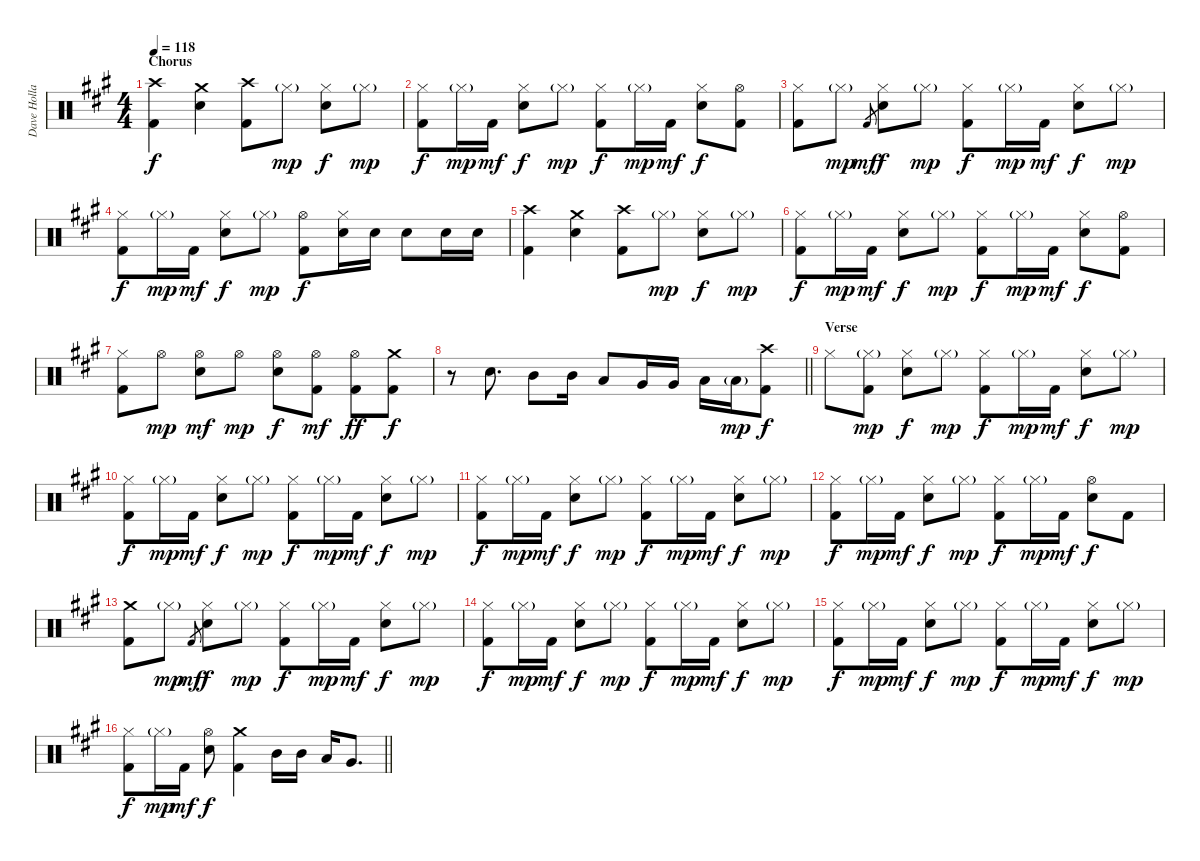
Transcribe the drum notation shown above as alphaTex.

\track ("Dave Holland" "Dave Holla") {instrument percussion}
\staff {score}
\articulation defaults
\ts (4 4)
\section ("" "Chorus")
\tempo 118
\clef neutral
\ks f#minor
("Crash high (hit)" "Kick (hit) 2").4{dy f} ("Crash medium (hit)" "Snare (hit) 2").4 ("Crash high (hit)" "Kick (hit) 2").8 "Hi-Hat (closed)"{g}.8{dy mp} ("Hi-Hat (closed)" "Snare (hit) 2").8{dy f} "Hi-Hat (closed)"{g}.8{dy mp} |
("Hi-Hat (closed)" "Kick (hit) 2").8{dy f} "Hi-Hat (closed)"{g}.16{dy mp} "Kick (hit) 2".16{dy mf} ("Hi-Hat (closed)" "Snare (hit) 2").8{dy f} "Hi-Hat (closed)"{g}.8{dy mp} ("Hi-Hat (closed)" "Kick (hit) 2").8{dy f} "Hi-Hat (closed)"{g}.16{dy mp} "Kick (hit) 2".16{dy mf} ("Hi-Hat (closed)" "Snare (hit) 2").8{dy f} ("Hi-Hat (open)" "Kick (hit) 2").8 |
("Hi-Hat (closed)" "Kick (hit) 2").8 "Hi-Hat (closed)"{g}.8{dy mp} "Kick (hit) 2".8{gr dy mf} ("Hi-Hat (closed)" "Snare (hit) 2").8{dy f} "Hi-Hat (closed)"{g}.8{dy mp} ("Hi-Hat (closed)" "Kick (hit) 2").8{dy f} "Hi-Hat (closed)"{g}.16{dy mp} "Kick (hit) 2".16{dy mf} ("Hi-Hat (closed)" "Snare (hit) 2").8{dy f} "Hi-Hat (closed)"{g}.8{dy mp} |
("Hi-Hat (closed)" "Kick (hit) 2").8{dy f} "Hi-Hat (closed)"{g}.16{dy mp} "Kick (hit) 2".16{dy mf} ("Hi-Hat (closed)" "Snare (hit) 2").8{dy f} "Hi-Hat (closed)"{g}.8{dy mp} ("Hi-Hat (open)" "Kick (hit) 2").8{dy f} ("Hi-Hat (closed)" "Snare (hit) 2").16 "Snare (hit) 2".16 "Snare (hit) 2".8 "Snare (hit) 2".16 "Snare (hit) 2".16 |
("Crash high (hit)" "Kick (hit) 2").4 ("Crash medium (hit)" "Snare (hit) 2").4 ("Crash high (hit)" "Kick (hit) 2").8 "Hi-Hat (closed)"{g}.8{dy mp} ("Hi-Hat (closed)" "Snare (hit) 2").8{dy f} "Hi-Hat (closed)"{g}.8{dy mp} |
("Hi-Hat (closed)" "Kick (hit) 2").8{dy f} "Hi-Hat (closed)"{g}.16{dy mp} "Kick (hit) 2".16{dy mf} ("Hi-Hat (closed)" "Snare (hit) 2").8{dy f} "Hi-Hat (closed)"{g}.8{dy mp} ("Hi-Hat (closed)" "Kick (hit) 2").8{dy f} "Hi-Hat (closed)"{g}.16{dy mp} "Kick (hit) 2".16{dy mf} ("Hi-Hat (closed)" "Snare (hit) 2").8{dy f} ("Hi-Hat (open)" "Kick (hit) 2").8 |
("Hi-Hat (closed)" "Kick (hit) 2").8 "Hi-Hat (open)".8{dy mp} ("Hi-Hat (open)" "Snare (hit) 2").8{dy mf} "Hi-Hat (open)".8{dy mp} ("Hi-Hat (open)" "Snare (hit) 2").8{dy f} ("Hi-Hat (open)" "Kick (hit) 2").8{dy mf} ("Hi-Hat (open)" "Kick (hit) 2").8{dy ff} ("Crash medium (hit)" "Kick (hit) 2").8{dy f} |
\barLineRight lightlight
r.8 "Snare (hit) 2".8{d} "Mid Tom (hit)".8 "Mid Tom (hit)".16 "Low Tom (hit)".8 "Very Low Tom (hit)".16 "Very Low Tom (hit)".16 "Low Floor Tom (hit)".16 "Low Floor Tom (hit)"{g}.16{dy mp} ("Crash high (hit)" "Kick (hit) 2").8{dy f} |
\section ("" "Verse")
"Hi-Hat (closed)".8 ("Hi-Hat (closed)"{g} "Kick (hit) 2").8{dy mp} ("Hi-Hat (closed)" "Snare (hit) 2").8{dy f} "Hi-Hat (closed)"{g}.8{dy mp} ("Hi-Hat (closed)" "Kick (hit) 2").8{dy f} "Hi-Hat (closed)"{g}.16{dy mp} "Kick (hit) 2".16{dy mf} ("Hi-Hat (closed)" "Snare (hit) 2").8{dy f} "Hi-Hat (closed)"{g}.8{dy mp} |
("Hi-Hat (closed)" "Kick (hit) 2").8{dy f} "Hi-Hat (closed)"{g}.16{dy mp} "Kick (hit) 2".16{dy mf} ("Hi-Hat (closed)" "Snare (hit) 2").8{dy f} "Hi-Hat (closed)"{g}.8{dy mp} ("Hi-Hat (closed)" "Kick (hit) 2").8{dy f} "Hi-Hat (closed)"{g}.16{dy mp} "Kick (hit) 2".16{dy mf} ("Hi-Hat (closed)" "Snare (hit) 2").8{dy f} "Hi-Hat (closed)"{g}.8{dy mp} |
("Hi-Hat (closed)" "Kick (hit) 2").8{dy f} "Hi-Hat (closed)"{g}.16{dy mp} "Kick (hit) 2".16{dy mf} ("Hi-Hat (closed)" "Snare (hit) 2").8{dy f} "Hi-Hat (closed)"{g}.8{dy mp} ("Hi-Hat (closed)" "Kick (hit) 2").8{dy f} "Hi-Hat (closed)"{g}.16{dy mp} "Kick (hit) 2".16{dy mf} ("Hi-Hat (closed)" "Snare (hit) 2").8{dy f} "Hi-Hat (closed)"{g}.8{dy mp} |
("Hi-Hat (closed)" "Kick (hit) 2").8{dy f} "Hi-Hat (closed)"{g}.16{dy mp} "Kick (hit) 2".16{dy mf} ("Hi-Hat (closed)" "Snare (hit) 2").8{dy f} "Hi-Hat (closed)"{g}.8{dy mp} ("Hi-Hat (closed)" "Kick (hit) 2").8{dy f} "Hi-Hat (closed)"{g}.16{dy mp} "Kick (hit) 2".16{dy mf} ("Hi-Hat (open)" "Snare (hit) 2").8{dy f} "Kick (hit) 2".8 |
("Crash medium (hit)" "Kick (hit) 2").8 "Hi-Hat (closed)"{g}.8{dy mp} "Kick (hit) 2".8{gr dy mf} ("Hi-Hat (closed)" "Snare (hit) 2").8{dy f} "Hi-Hat (closed)"{g}.8{dy mp} ("Hi-Hat (closed)" "Kick (hit) 2").8{dy f} "Hi-Hat (closed)"{g}.16{dy mp} "Kick (hit) 2".16{dy mf} ("Hi-Hat (closed)" "Snare (hit) 2").8{dy f} "Hi-Hat (closed)"{g}.8{dy mp} |
("Hi-Hat (closed)" "Kick (hit) 2").8{dy f} "Hi-Hat (closed)"{g}.16{dy mp} "Kick (hit) 2".16{dy mf} ("Hi-Hat (closed)" "Snare (hit) 2").8{dy f} "Hi-Hat (closed)"{g}.8{dy mp} ("Hi-Hat (closed)" "Kick (hit) 2").8{dy f} "Hi-Hat (closed)"{g}.16{dy mp} "Kick (hit) 2".16{dy mf} ("Hi-Hat (closed)" "Snare (hit) 2").8{dy f} "Hi-Hat (closed)"{g}.8{dy mp} |
("Hi-Hat (closed)" "Kick (hit) 2").8{dy f} "Hi-Hat (closed)"{g}.16{dy mp} "Kick (hit) 2".16{dy mf} ("Hi-Hat (closed)" "Snare (hit) 2").8{dy f} "Hi-Hat (closed)"{g}.8{dy mp} ("Hi-Hat (closed)" "Kick (hit) 2").8{dy f} "Hi-Hat (closed)"{g}.16{dy mp} "Kick (hit) 2".16{dy mf} ("Hi-Hat (closed)" "Snare (hit) 2").8{dy f} "Hi-Hat (closed)"{g}.8{dy mp} |
\barLineRight lightlight
("Hi-Hat (closed)" "Kick (hit) 2").8{dy f} "Hi-Hat (closed)"{g}.16{dy mp} "Kick (hit) 2".16{dy mf} ("Hi-Hat (open)" "Snare (hit) 2").8{dy f} ("Crash medium (hit)" "Kick (hit) 2").4 "Mid Tom (hit)".16 "Mid Tom (hit)".16 "Low Tom (hit)".16 "Very Low Tom (hit)".8{d}
